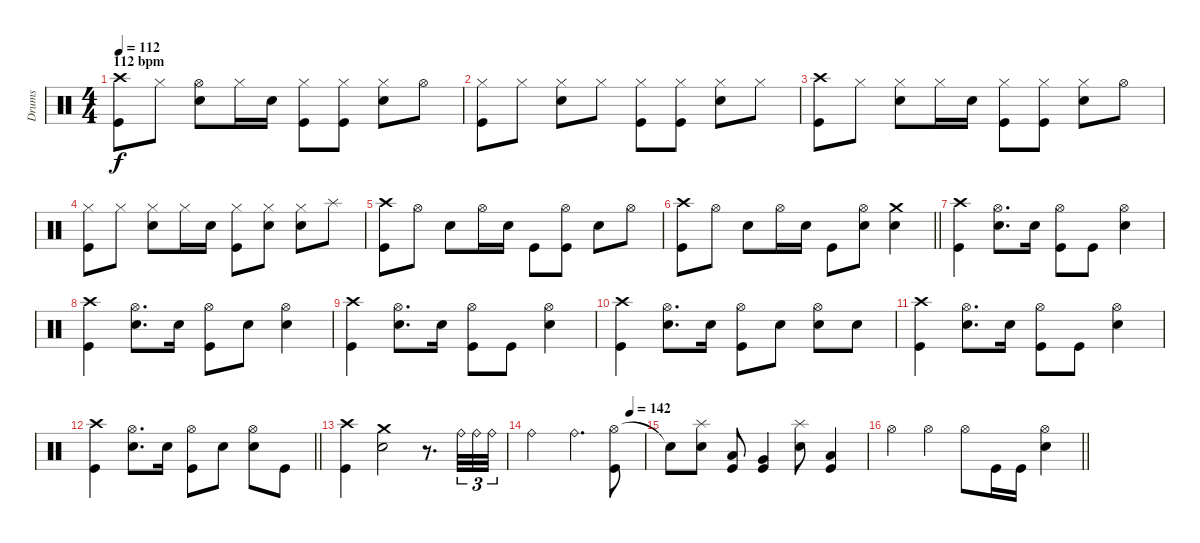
\track ("Drums" "Drums") {instrument percussion}
\staff
\articulation defaults
\ts (4 4)
\section ("" "112 bpm")
\tempo 112
\clef neutral
\ks c
("Crash high (hit)" "Kick (hit)").8{dy f} "Hi-Hat (closed)".8 ("Hi-Hat (open)" "Electric Snare (hit)").8 "Hi-Hat (closed)".16 "Electric Snare (hit)".16 ("Hi-Hat (closed)" "Kick (hit)").8 ("Hi-Hat (closed)" "Kick (hit)").8 ("Hi-Hat (closed)" "Electric Snare (hit)").8 "Hi-Hat (open)".8 |
("Hi-Hat (closed)" "Kick (hit)").8 "Hi-Hat (closed)".8 ("Hi-Hat (closed)" "Electric Snare (hit)").8 "Hi-Hat (closed)".8 ("Hi-Hat (closed)" "Kick (hit)").8 ("Hi-Hat (closed)" "Kick (hit)").8 ("Hi-Hat (closed)" "Electric Snare (hit)").8 "Hi-Hat (closed)".8 |
("Crash high (hit)" "Kick (hit)").8 "Hi-Hat (closed)".8 ("Hi-Hat (closed)" "Electric Snare (hit)").8 "Hi-Hat (closed)".16 "Electric Snare (hit)".16 ("Hi-Hat (closed)" "Kick (hit)").8 ("Hi-Hat (closed)" "Kick (hit)").8 ("Hi-Hat (closed)" "Electric Snare (hit)").8 "Hi-Hat (open)".8 |
("Hi-Hat (closed)" "Kick (hit)").8 "Hi-Hat (closed)".8 ("Hi-Hat (closed)" "Electric Snare (hit)").8 "Hi-Hat (closed)".16 "Electric Snare (hit)".16 ("Hi-Hat (closed)" "Kick (hit)").8 ("Hi-Hat (closed)" "Electric Snare (hit)").8 ("Hi-Hat (closed)" "Electric Snare (hit)").8 "Splash (hit)".8 |
("Crash high (hit)" "Kick (hit)").8 "Hi-Hat (open)".8 "Electric Snare (hit)".8 "Hi-Hat (open)".16 "Electric Snare (hit)".16 "Kick (hit)".8 ("Hi-Hat (open)" "Kick (hit)").8 "Electric Snare (hit)".8 "Hi-Hat (open)".8 |
\barLineRight lightlight
("Crash high (hit)" "Kick (hit)").8 "Hi-Hat (open)".8 "Electric Snare (hit)".8 "Hi-Hat (open)".16 "Electric Snare (hit)".16 "Kick (hit)".8 ("Hi-Hat (open)" "Electric Snare (hit)").8 ("Crash medium (hit)" "Electric Snare (hit)").4 |
\section ("" "")
("Crash high (hit)" "Kick (hit)").4 ("Hi-Hat (open)" "Electric Snare (hit)").8{d} "Electric Snare (hit)".16 ("Hi-Hat (open)" "Kick (hit)").8 "Kick (hit)".8 ("Hi-Hat (open)" "Electric Snare (hit)").4 |
("Crash high (hit)" "Kick (hit)").4 ("Hi-Hat (open)" "Electric Snare (hit)").8{d} "Electric Snare (hit)".16 ("Hi-Hat (open)" "Kick (hit)").8 "Electric Snare (hit)".8 ("Hi-Hat (open)" "Electric Snare (hit)").4 |
("Crash high (hit)" "Kick (hit)").4 ("Hi-Hat (open)" "Electric Snare (hit)").8{d} "Electric Snare (hit)".16 ("Hi-Hat (open)" "Kick (hit)").8 "Kick (hit)".8 ("Hi-Hat (open)" "Electric Snare (hit)").4 |
("Crash high (hit)" "Kick (hit)").4 ("Hi-Hat (open)" "Electric Snare (hit)").8{d} "Electric Snare (hit)".16 ("Hi-Hat (open)" "Kick (hit)").8 "Electric Snare (hit)".8 ("Hi-Hat (open)" "Electric Snare (hit)").8 "Electric Snare (hit)".8 |
("Crash high (hit)" "Kick (hit)").4 ("Hi-Hat (open)" "Electric Snare (hit)").8{d} "Electric Snare (hit)".16 ("Hi-Hat (open)" "Kick (hit)").8 "Kick (hit)".8 ("Hi-Hat (open)" "Electric Snare (hit)").4 |
\barLineRight lightlight
("Crash high (hit)" "Kick (hit)").4 ("Hi-Hat (open)" "Electric Snare (hit)").8{d} "Electric Snare (hit)".16 ("Hi-Hat (open)" "Kick (hit)").8 "Electric Snare (hit)".8 ("Hi-Hat (open)" "Electric Snare (hit)").8 "Kick (hit)".8 |
("Crash high (hit)" "Kick (hit)").4 ("Crash medium (hit)" "Electric Snare (hit)").2 r.8{d} "Ride (bell)".32{tu (3 2)} "Ride (bell)".32{tu (3 2)} "Ride (bell)".32{tu (3 2)} |
\tempo (142 0.875)
"Ride (bell)".2 "Ride (bell)".4{d} ("Hi-Hat (open)" "Kick (hit)").8 |
"Snare (hit)"{t}.8 ("Splash (hit)" "Electric Snare (hit)").8 ("Low Tom (hit)" "Kick (hit)").8 ("Very Low Tom (hit)" "Kick (hit)").4 ("Splash (hit)" "Electric Snare (hit)").8 ("Low Floor Tom (hit)" "Kick (hit)").4 |
\barLineRight lightlight "Hi-Hat (open)".4 "Hi-Hat (open)".4 "Hi-Hat (open)".8 "Kick (hit)".16 "Kick (hit)".16
("Hi-Hat (open)" "Electric Snare (hit)").4
